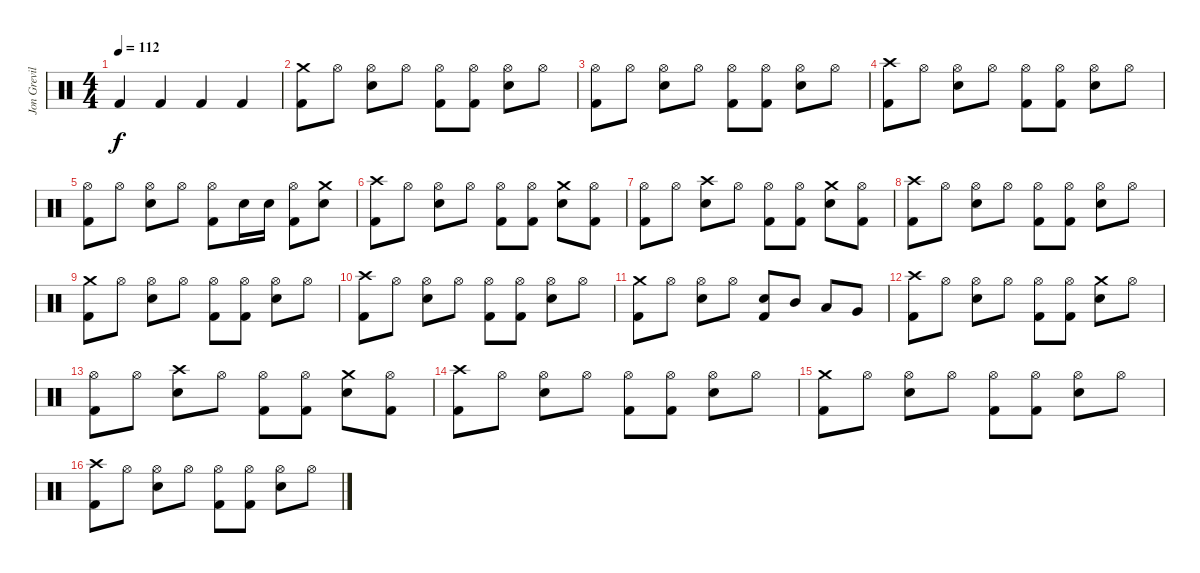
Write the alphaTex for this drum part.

\track ("Jon Greville (Drums)" "Jon Grevil") {instrument percussion}
\staff {score}
\articulation defaults
\ts (4 4)
\tempo 112
\clef neutral
\ks c "Kick (hit) 2".4{dy f} "Kick (hit) 2".4 "Kick (hit) 2".4 "Kick (hit) 2".4
|
("Crash medium (hit)" "Kick (hit) 2").8 "Hi-Hat (open)".8 ("Hi-Hat (open)" "Electric Snare (hit)").8 "Hi-Hat (open)".8 ("Hi-Hat (open)" "Kick (hit) 2").8 ("Hi-Hat (open)" "Kick (hit) 2").8 ("Hi-Hat (open)" "Electric Snare (hit)").8 "Hi-Hat (open)".8 |
("Hi-Hat (open)" "Kick (hit) 2").8 "Hi-Hat (open)".8 ("Hi-Hat (open)" "Electric Snare (hit)").8 "Hi-Hat (open)".8 ("Hi-Hat (open)" "Kick (hit) 2").8 ("Hi-Hat (open)" "Kick (hit) 2").8 ("Hi-Hat (open)" "Electric Snare (hit)").8 "Hi-Hat (open)".8 |
("Crash high (hit)" "Kick (hit) 2").8 "Hi-Hat (open)".8 ("Hi-Hat (open)" "Electric Snare (hit)").8 "Hi-Hat (open)".8 ("Hi-Hat (open)" "Kick (hit) 2").8 ("Hi-Hat (open)" "Kick (hit) 2").8 ("Hi-Hat (open)" "Electric Snare (hit)").8 "Hi-Hat (open)".8 |
("Hi-Hat (open)" "Kick (hit) 2").8 "Hi-Hat (open)".8 ("Hi-Hat (open)" "Electric Snare (hit)").8 "Hi-Hat (open)".8 ("Hi-Hat (open)" "Kick (hit) 2").8 "Electric Snare (hit)".16 "Electric Snare (hit)".16 ("Hi-Hat (open)" "Kick (hit) 2").8 ("Crash medium (hit)" "Electric Snare (hit)").8 |
("Crash high (hit)" "Kick (hit) 2").8 "Hi-Hat (open)".8 ("Hi-Hat (open)" "Electric Snare (hit)").8 "Hi-Hat (open)".8 ("Hi-Hat (open)" "Kick (hit) 2").8 ("Hi-Hat (open)" "Kick (hit) 2").8 ("Crash medium (hit)" "Electric Snare (hit)").8 ("Hi-Hat (open)" "Kick (hit) 2").8 |
("Hi-Hat (open)" "Kick (hit) 2").8 "Hi-Hat (open)".8 ("Crash high (hit)" "Electric Snare (hit)").8 "Hi-Hat (open)".8 ("Hi-Hat (open)" "Kick (hit) 2").8 ("Hi-Hat (open)" "Kick (hit) 2").8 ("Crash medium (hit)" "Electric Snare (hit)").8 ("Hi-Hat (open)" "Kick (hit) 2").8 |
("Crash high (hit)" "Kick (hit) 2").8 "Hi-Hat (open)".8 ("Hi-Hat (open)" "Electric Snare (hit)").8 "Hi-Hat (open)".8 ("Hi-Hat (open)" "Kick (hit) 2").8 ("Hi-Hat (open)" "Kick (hit) 2").8 ("Hi-Hat (open)" "Electric Snare (hit)").8 "Hi-Hat (open)".8 |
("Crash medium (hit)" "Kick (hit) 2").8 "Hi-Hat (open)".8 ("Hi-Hat (open)" "Electric Snare (hit)").8 "Hi-Hat (open)".8 ("Hi-Hat (open)" "Kick (hit) 2").8 ("Hi-Hat (open)" "Kick (hit) 2").8 ("Hi-Hat (open)" "Electric Snare (hit)").8 "Hi-Hat (open)".8 |
("Crash high (hit)" "Kick (hit) 2").8 "Hi-Hat (open)".8 ("Hi-Hat (open)" "Electric Snare (hit)").8 "Hi-Hat (open)".8 ("Hi-Hat (open)" "Kick (hit) 2").8 ("Hi-Hat (open)" "Kick (hit) 2").8 ("Hi-Hat (open)" "Electric Snare (hit)").8 "Hi-Hat (open)".8 |
("Crash medium (hit)" "Kick (hit) 2").8 "Hi-Hat (open)".8 ("Hi-Hat (open)" "Electric Snare (hit)").8 "Hi-Hat (open)".8 ("Electric Snare (hit)" "Kick (hit) 2").8 "Mid Tom (hit)".8 "Low Tom (hit)".8 "Very Low Tom (hit)".8 |
("Crash high (hit)" "Kick (hit) 2").8 "Hi-Hat (open)".8 ("Hi-Hat (open)" "Electric Snare (hit)").8 "Hi-Hat (open)".8 ("Hi-Hat (open)" "Kick (hit) 2").8 ("Hi-Hat (open)" "Kick (hit) 2").8 ("Crash medium (hit)" "Electric Snare (hit)").8 "Hi-Hat (open)".8 |
("Hi-Hat (open)" "Kick (hit) 2").8 "Hi-Hat (open)".8 ("Crash high (hit)" "Electric Snare (hit)").8 "Hi-Hat (open)".8 ("Hi-Hat (open)" "Kick (hit) 2").8 ("Hi-Hat (open)" "Kick (hit) 2").8 ("Crash medium (hit)" "Electric Snare (hit)").8 ("Hi-Hat (open)" "Kick (hit) 2").8 |
("Crash high (hit)" "Kick (hit) 2").8 "Hi-Hat (open)".8 ("Hi-Hat (open)" "Electric Snare (hit)").8 "Hi-Hat (open)".8 ("Hi-Hat (open)" "Kick (hit) 2").8 ("Hi-Hat (open)" "Kick (hit) 2").8 ("Hi-Hat (open)" "Electric Snare (hit)").8 "Hi-Hat (open)".8 |
("Crash medium (hit)" "Kick (hit) 2").8 "Hi-Hat (open)".8 ("Hi-Hat (open)" "Electric Snare (hit)").8 "Hi-Hat (open)".8 ("Hi-Hat (open)" "Kick (hit) 2").8 ("Hi-Hat (open)" "Kick (hit) 2").8 ("Hi-Hat (open)" "Electric Snare (hit)").8 "Hi-Hat (open)".8 |
("Crash high (hit)" "Kick (hit) 2").8 "Hi-Hat (open)".8 ("Hi-Hat (open)" "Electric Snare (hit)").8 "Hi-Hat (open)".8 ("Hi-Hat (open)" "Kick (hit) 2").8 ("Hi-Hat (open)" "Kick (hit) 2").8 ("Hi-Hat (open)" "Electric Snare (hit)").8 "Hi-Hat (open)".8
